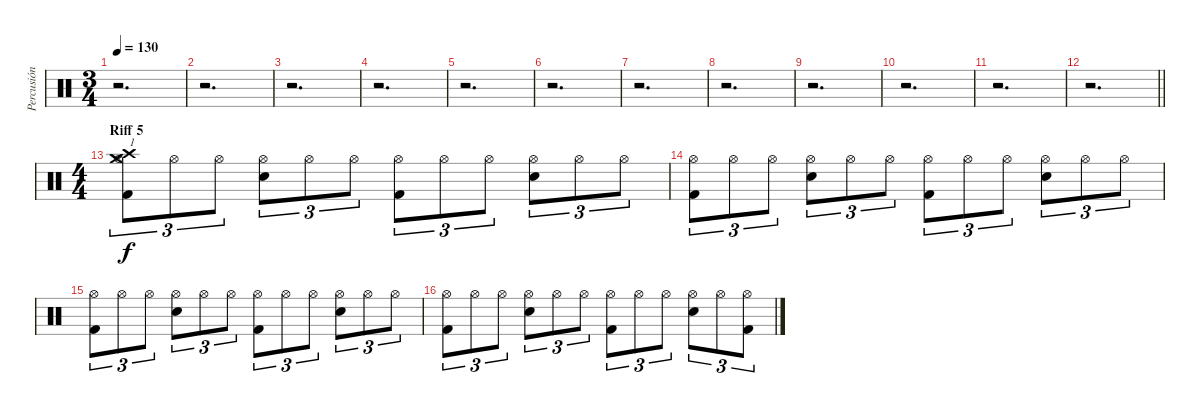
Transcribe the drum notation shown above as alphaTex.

\track ("Percusión" "Percusión") {instrument percussion}
\staff {score}
\articulation defaults
\ts (3 4)
\tempo 130
\clef neutral
\ks c
r.2{d dy f} |
r.2{d} |
r.2{d} |
r.2{d} |
r.2{d} |
r.2{d} |
r.2{d} |
r.2{d} |
r.2{d} |
r.2{d} |
r.2{d} |
\barLineRight lightlight
r.2{d} |
\ts (4 4)
\section ("" "Riff 5")
("Hi-Hat (open)" "Crash medium (hit)" "Crash high (hit)" "Kick (hit) 2").8{tu (3 2) txt "1" volume 12} "Hi-Hat (open)".8{tu (3 2)} "Hi-Hat (open)".8{tu (3 2)} ("Hi-Hat (open)" "Electric Snare (hit)").8{tu (3 2)} "Hi-Hat (open)".8{tu (3 2)} "Hi-Hat (open)".8{tu (3 2)} ("Hi-Hat (open)" "Kick (hit) 2").8{tu (3 2)} "Hi-Hat (open)".8{tu (3 2)} "Hi-Hat (open)".8{tu (3 2)} ("Hi-Hat (open)" "Electric Snare (hit)").8{tu (3 2)} "Hi-Hat (open)".8{tu (3 2)} "Hi-Hat (open)".8{tu (3 2)} |
("Hi-Hat (open)" "Kick (hit) 2").8{tu (3 2)} "Hi-Hat (open)".8{tu (3 2)} "Hi-Hat (open)".8{tu (3 2)} ("Hi-Hat (open)" "Electric Snare (hit)").8{tu (3 2)} "Hi-Hat (open)".8{tu (3 2)} "Hi-Hat (open)".8{tu (3 2)} ("Hi-Hat (open)" "Kick (hit) 2").8{tu (3 2)} "Hi-Hat (open)".8{tu (3 2)} "Hi-Hat (open)".8{tu (3 2)} ("Hi-Hat (open)" "Electric Snare (hit)").8{tu (3 2)} "Hi-Hat (open)".8{tu (3 2)} "Hi-Hat (open)".8{tu (3 2)} |
("Hi-Hat (open)" "Kick (hit) 2").8{tu (3 2)} "Hi-Hat (open)".8{tu (3 2)} "Hi-Hat (open)".8{tu (3 2)} ("Hi-Hat (open)" "Electric Snare (hit)").8{tu (3 2)} "Hi-Hat (open)".8{tu (3 2)} "Hi-Hat (open)".8{tu (3 2)} ("Hi-Hat (open)" "Kick (hit) 2").8{tu (3 2)} "Hi-Hat (open)".8{tu (3 2)} "Hi-Hat (open)".8{tu (3 2)} ("Hi-Hat (open)" "Electric Snare (hit)").8{tu (3 2)} "Hi-Hat (open)".8{tu (3 2)} "Hi-Hat (open)".8{tu (3 2)} |
("Hi-Hat (open)" "Kick (hit) 2").8{tu (3 2)} "Hi-Hat (open)".8{tu (3 2)} "Hi-Hat (open)".8{tu (3 2)} ("Hi-Hat (open)" "Electric Snare (hit)").8{tu (3 2)} "Hi-Hat (open)".8{tu (3 2)} "Hi-Hat (open)".8{tu (3 2)} ("Hi-Hat (open)" "Kick (hit) 2").8{tu (3 2)} "Hi-Hat (open)".8{tu (3 2)} "Hi-Hat (open)".8{tu (3 2)} ("Hi-Hat (open)" "Electric Snare (hit)").8{tu (3 2)} "Hi-Hat (open)".8{tu (3 2)} ("Hi-Hat (open)" "Kick (hit) 2").8{tu (3 2)}
